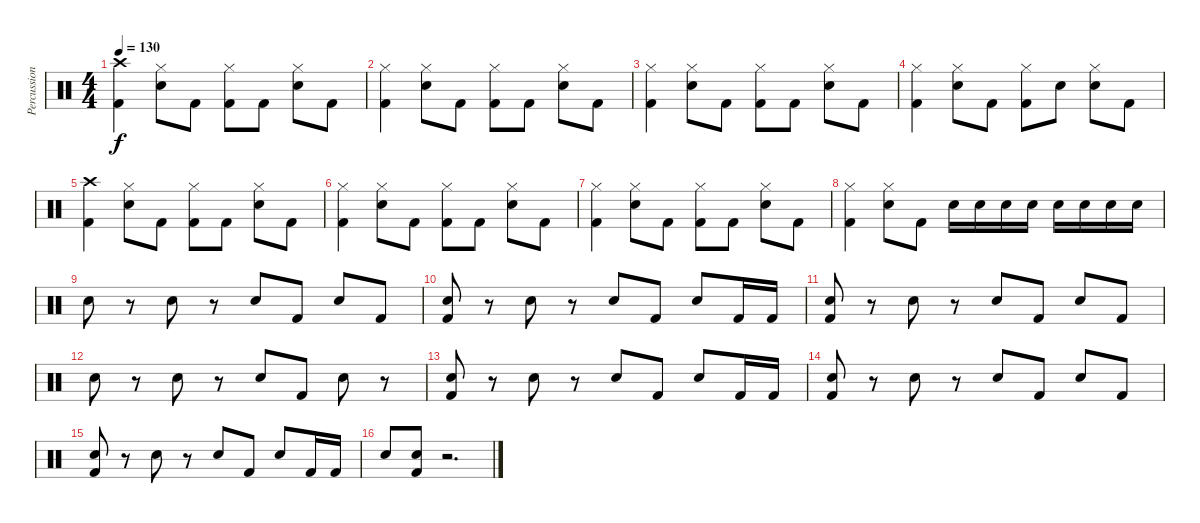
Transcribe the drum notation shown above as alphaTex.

\track ("Percussion" "Percussion") {instrument percussion}
\staff {score}
\articulation defaults
\ts (4 4)
\tempo 130
\clef neutral
\ks c
("Crash high (hit)" "Kick (hit) 2").4{dy f} ("Hi-Hat (closed)" "Electric Snare (hit)").8 "Kick (hit) 2".8 ("Hi-Hat (closed)" "Kick (hit) 2").8 "Kick (hit) 2".8 ("Hi-Hat (closed)" "Electric Snare (hit)").8 "Kick (hit) 2".8 |
("Hi-Hat (closed)" "Kick (hit) 2").4 ("Hi-Hat (closed)" "Electric Snare (hit)").8 "Kick (hit) 2".8 ("Hi-Hat (closed)" "Kick (hit) 2").8 "Kick (hit) 2".8 ("Hi-Hat (closed)" "Electric Snare (hit)").8 "Kick (hit) 2".8 |
("Hi-Hat (closed)" "Kick (hit) 2").4 ("Hi-Hat (closed)" "Electric Snare (hit)").8 "Kick (hit) 2".8 ("Hi-Hat (closed)" "Kick (hit) 2").8 "Kick (hit) 2".8 ("Hi-Hat (closed)" "Electric Snare (hit)").8 "Kick (hit) 2".8 |
("Hi-Hat (closed)" "Kick (hit) 2").4 ("Hi-Hat (closed)" "Electric Snare (hit)").8 "Kick (hit) 2".8 ("Hi-Hat (closed)" "Kick (hit) 2").8 "Electric Snare (hit)".8 ("Hi-Hat (closed)" "Electric Snare (hit)").8 "Kick (hit) 2".8 |
("Crash high (hit)" "Kick (hit) 2").4 ("Hi-Hat (closed)" "Electric Snare (hit)").8 "Kick (hit) 2".8 ("Hi-Hat (closed)" "Kick (hit) 2").8 "Kick (hit) 2".8 ("Hi-Hat (closed)" "Electric Snare (hit)").8 "Kick (hit) 2".8 |
("Hi-Hat (closed)" "Kick (hit) 2").4 ("Hi-Hat (closed)" "Electric Snare (hit)").8 "Kick (hit) 2".8 ("Hi-Hat (closed)" "Kick (hit) 2").8 "Kick (hit) 2".8 ("Hi-Hat (closed)" "Electric Snare (hit)").8 "Kick (hit) 2".8 |
("Hi-Hat (closed)" "Kick (hit) 2").4 ("Hi-Hat (closed)" "Electric Snare (hit)").8 "Kick (hit) 2".8 ("Hi-Hat (closed)" "Kick (hit) 2").8 "Kick (hit) 2".8 ("Hi-Hat (closed)" "Electric Snare (hit)").8 "Kick (hit) 2".8 |
("Hi-Hat (closed)" "Kick (hit) 2").4 ("Hi-Hat (closed)" "Electric Snare (hit)").8 "Kick (hit) 2".8 "Electric Snare (hit)".16 "Electric Snare (hit)".16 "Electric Snare (hit)".16 "Electric Snare (hit)".16 "Electric Snare (hit)".16 "Electric Snare (hit)".16 "Electric Snare (hit)".16 "Electric Snare (hit)".16 |
"Electric Snare (hit)".8 r.8 "Electric Snare (hit)".8 r.8 "Electric Snare (hit)".8 "Kick (hit) 2".8 "Electric Snare (hit)".8 "Kick (hit) 2".8 |
("Electric Snare (hit)" "Kick (hit) 2").8 r.8 "Electric Snare (hit)".8 r.8 "Electric Snare (hit)".8 "Kick (hit) 2".8 "Electric Snare (hit)".8 "Kick (hit) 2".16 "Kick (hit) 2".16 |
("Electric Snare (hit)" "Kick (hit) 2").8 r.8 "Electric Snare (hit)".8 r.8 "Electric Snare (hit)".8 "Kick (hit) 2".8 "Electric Snare (hit)".8 "Kick (hit) 2".8 |
"Electric Snare (hit)".8 r.8 "Electric Snare (hit)".8 r.8 "Electric Snare (hit)".8 "Kick (hit) 2".8 "Electric Snare (hit)".8 r.8 |
("Electric Snare (hit)" "Kick (hit) 2").8 r.8 "Electric Snare (hit)".8 r.8 "Electric Snare (hit)".8 "Kick (hit) 2".8 "Electric Snare (hit)".8 "Kick (hit) 2".16 "Kick (hit) 2".16 |
("Electric Snare (hit)" "Kick (hit) 2").8 r.8 "Electric Snare (hit)".8 r.8 "Electric Snare (hit)".8 "Kick (hit) 2".8 "Electric Snare (hit)".8 "Kick (hit) 2".8 |
("Electric Snare (hit)" "Kick (hit) 2").8 r.8 "Electric Snare (hit)".8 r.8 "Electric Snare (hit)".8 "Kick (hit) 2".8 "Electric Snare (hit)".8 "Kick (hit) 2".16 "Kick (hit) 2".16 |
"Electric Snare (hit)".8 ("Snare (hit) 2" "Kick (hit) 2").8 r.2{d}
